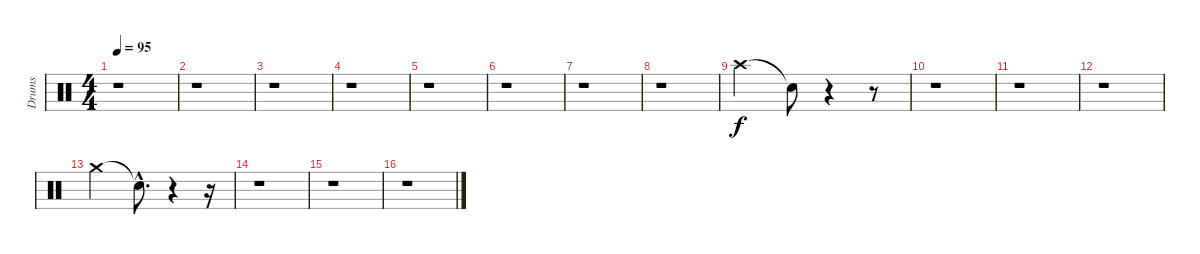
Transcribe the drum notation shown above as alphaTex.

\track ("Drums" "Drums") {instrument percussion}
\staff {score}
\articulation defaults
\ts (4 4)
\tempo 95
\clef neutral
\ks c
r.1{dy f} |
r.1 |
r.1 |
r.1 |
r.1 |
r.1 |
r.1 |
r.1 |
"Crash high (hit)".2 "Snare (hit)"{t}.8 r.4 r.8 |
r.1 |
r.1 |
r.1 |
"Crash medium (hit)".2 "Snare (hit)"{hac t}.8{d} r.4 r.16 |
r.1 |
r.1 |
r.1
